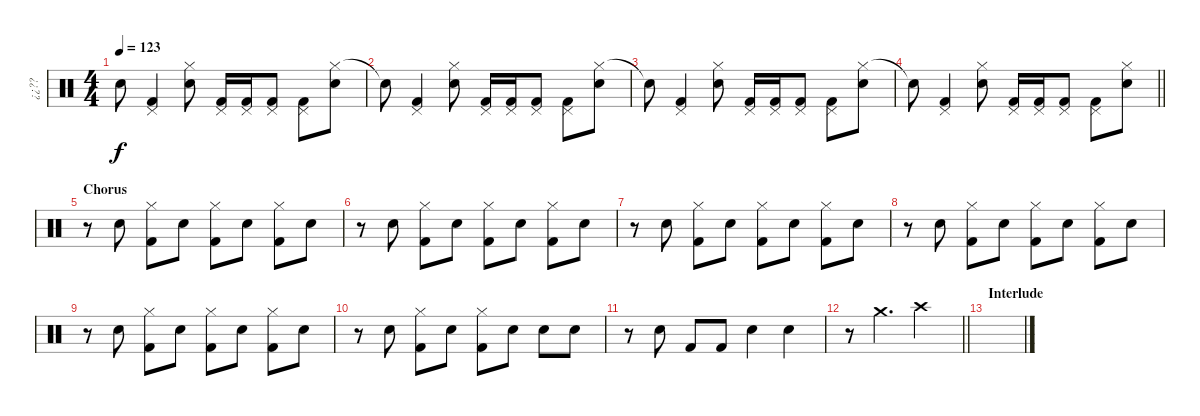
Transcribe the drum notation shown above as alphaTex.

\track ("¿¿??" "¿¿??") {instrument percussion}
\staff {score}
\articulation defaults
\ts (4 4)
\tempo 123
\clef neutral
\ks c "Snare (hit)"{t}.8{dy f}
("Pedal Hi-Hat (hit)" "Kick (hit) 2").4 ("Hi-Hat (closed)" "Snare (hit) 2").8 ("Pedal Hi-Hat (hit)" "Kick (hit) 2").16 ("Pedal Hi-Hat (hit)" "Kick (hit) 2").16 ("Pedal Hi-Hat (hit)" "Kick (hit) 2").8 ("Pedal Hi-Hat (hit)" "Kick (hit) 2").8 ("Hi-Hat (closed)" "Snare (hit) 2").8 |
"Snare (hit)"{t}.8 ("Pedal Hi-Hat (hit)" "Kick (hit) 2").4 ("Hi-Hat (closed)" "Snare (hit) 2").8 ("Pedal Hi-Hat (hit)" "Kick (hit) 2").16 ("Pedal Hi-Hat (hit)" "Kick (hit) 2").16 ("Pedal Hi-Hat (hit)" "Kick (hit) 2").8 ("Pedal Hi-Hat (hit)" "Kick (hit) 2").8 ("Hi-Hat (closed)" "Snare (hit) 2").8 |
"Snare (hit)"{t}.8 ("Pedal Hi-Hat (hit)" "Kick (hit) 2").4 ("Hi-Hat (closed)" "Snare (hit) 2").8 ("Pedal Hi-Hat (hit)" "Kick (hit) 2").16 ("Pedal Hi-Hat (hit)" "Kick (hit) 2").16 ("Pedal Hi-Hat (hit)" "Kick (hit) 2").8 ("Pedal Hi-Hat (hit)" "Kick (hit) 2").8 ("Hi-Hat (closed)" "Snare (hit) 2").8 |
\barLineRight lightlight "Snare (hit)"{t}.8
("Pedal Hi-Hat (hit)" "Kick (hit) 2").4 ("Hi-Hat (closed)" "Snare (hit) 2").8 ("Pedal Hi-Hat (hit)" "Kick (hit) 2").16 ("Pedal Hi-Hat (hit)" "Kick (hit) 2").16 ("Pedal Hi-Hat (hit)" "Kick (hit) 2").8 ("Pedal Hi-Hat (hit)" "Kick (hit) 2").8 ("Hi-Hat (closed)" "Snare (hit) 2").8 |
\section ("" "Chorus")
r.8 "Snare (hit) 2".8 ("Hi-Hat (closed)" "Kick (hit) 2").8 "Snare (hit) 2".8 ("Hi-Hat (closed)" "Kick (hit) 2").8 "Snare (hit) 2".8 ("Hi-Hat (closed)" "Kick (hit) 2").8 "Snare (hit) 2".8 |
r.8 "Snare (hit) 2".8 ("Hi-Hat (closed)" "Kick (hit) 2").8 "Snare (hit) 2".8 ("Hi-Hat (closed)" "Kick (hit) 2").8 "Snare (hit) 2".8 ("Hi-Hat (closed)" "Kick (hit) 2").8 "Snare (hit) 2".8 |
r.8 "Snare (hit) 2".8 ("Hi-Hat (closed)" "Kick (hit) 2").8 "Snare (hit) 2".8 ("Hi-Hat (closed)" "Kick (hit) 2").8 "Snare (hit) 2".8 ("Hi-Hat (closed)" "Kick (hit) 2").8 "Snare (hit) 2".8 |
r.8 "Snare (hit) 2".8 ("Hi-Hat (closed)" "Kick (hit) 2").8 "Snare (hit) 2".8 ("Hi-Hat (closed)" "Kick (hit) 2").8 "Snare (hit) 2".8 ("Hi-Hat (closed)" "Kick (hit) 2").8 "Snare (hit) 2".8 |
r.8 "Snare (hit) 2".8 ("Hi-Hat (closed)" "Kick (hit) 2").8 "Snare (hit) 2".8 ("Hi-Hat (closed)" "Kick (hit) 2").8 "Snare (hit) 2".8 ("Hi-Hat (closed)" "Kick (hit) 2").8 "Snare (hit) 2".8 |
r.8 "Snare (hit) 2".8 ("Hi-Hat (closed)" "Kick (hit) 2").8 "Snare (hit) 2".8 ("Hi-Hat (closed)" "Kick (hit) 2").8 "Snare (hit) 2".8 "Snare (hit) 2".8 "Snare (hit) 2".8 |
r.8 "Snare (hit) 2".8 "Kick (hit) 2".8 "Kick (hit) 2".8 "Snare (hit) 2".4 "Snare (hit) 2".4 |
\barLineRight lightlight
r.8 "Crash medium (hit)".4{d} "Crash high (hit)".2 |
\section ("" "Interlude")
